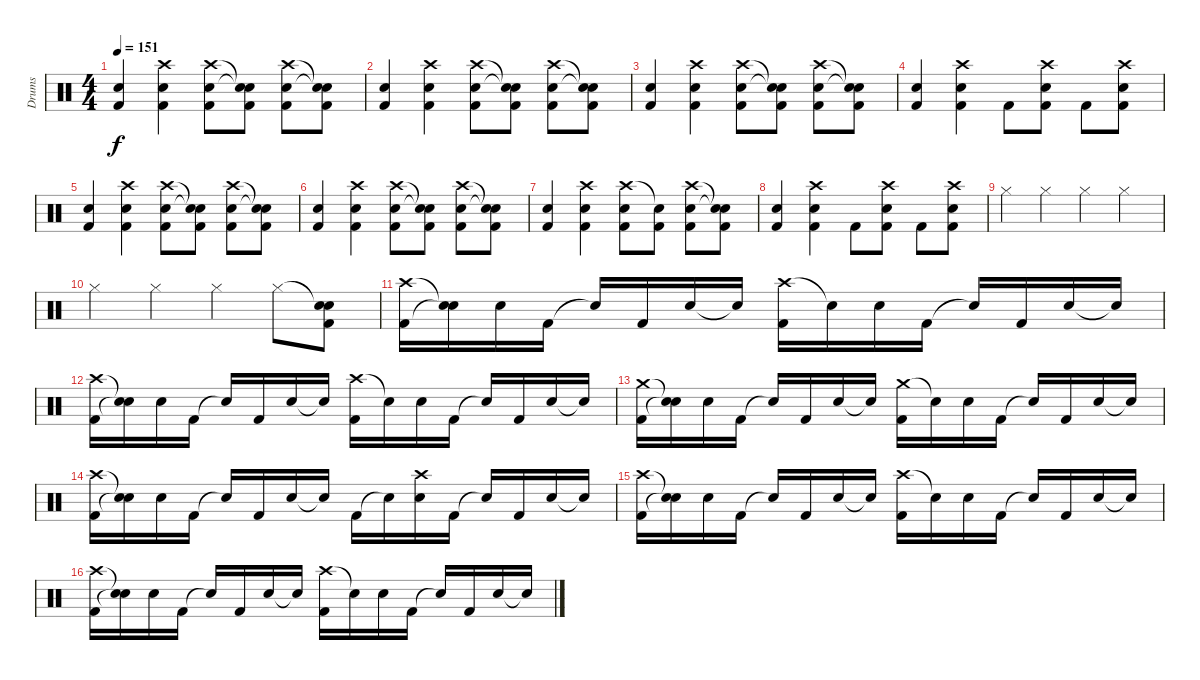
\track ("Drums" "Drums") {instrument percussion}
\staff {score}
\articulation defaults
\ts (4 4)
\tempo 151
\clef neutral
\ks c
("Snare (hit) 2" "Kick (hit) 2").4{dy f} ("Crash high (hit)" "Snare (hit) 2" "Kick (hit) 2").4 ("Crash high (hit)" "Snare (hit) 2" "Kick (hit) 2").8 ("Snare (hit)"{t} "Snare (hit)"{t} "Kick (hit) 2").8 ("Crash high (hit)" "Snare (hit) 2" "Kick (hit) 2").8 ("Snare (hit)"{t} "Snare (hit)"{t} "Kick (hit) 2").8 |
("Snare (hit) 2" "Kick (hit) 2").4 ("Crash high (hit)" "Snare (hit) 2" "Kick (hit) 2").4 ("Crash high (hit)" "Snare (hit) 2" "Kick (hit) 2").8 ("Snare (hit)"{t} "Snare (hit)"{t} "Kick (hit) 2").8 ("Crash high (hit)" "Snare (hit) 2" "Kick (hit) 2").8 ("Snare (hit)"{t} "Snare (hit)"{t} "Kick (hit) 2").8 |
("Snare (hit) 2" "Kick (hit) 2").4 ("Crash high (hit)" "Snare (hit) 2" "Kick (hit) 2").4 ("Crash high (hit)" "Snare (hit) 2" "Kick (hit) 2").8 ("Snare (hit)"{t} "Snare (hit)"{t} "Kick (hit) 2").8 ("Crash high (hit)" "Snare (hit) 2" "Kick (hit) 2").8 ("Snare (hit)"{t} "Snare (hit)"{t} "Kick (hit) 2").8 |
("Snare (hit) 2" "Kick (hit) 2").4 ("Crash high (hit)" "Snare (hit) 2" "Kick (hit) 2").4 "Kick (hit) 2".8 ("Crash high (hit)" "Snare (hit) 2" "Kick (hit) 2").8 "Kick (hit) 2".8 ("Crash high (hit)" "Snare (hit) 2" "Kick (hit) 2").8 |
("Snare (hit) 2" "Kick (hit) 2").4 ("Crash high (hit)" "Snare (hit) 2" "Kick (hit) 2").4 ("Crash high (hit)" "Snare (hit) 2" "Kick (hit) 2").8 ("Snare (hit)"{t} "Snare (hit)"{t} "Kick (hit) 2").8 ("Crash high (hit)" "Snare (hit) 2" "Kick (hit) 2").8 ("Snare (hit)"{t} "Snare (hit)"{t} "Kick (hit) 2").8 |
("Snare (hit) 2" "Kick (hit) 2").4 ("Crash high (hit)" "Snare (hit) 2" "Kick (hit) 2").4 ("Crash high (hit)" "Snare (hit) 2" "Kick (hit) 2").8 ("Snare (hit)"{t} "Snare (hit)"{t} "Kick (hit) 2").8 ("Crash high (hit)" "Snare (hit) 2" "Kick (hit) 2").8 ("Snare (hit)"{t} "Snare (hit)"{t} "Kick (hit) 2").8 |
("Snare (hit) 2" "Kick (hit) 2").4 ("Crash high (hit)" "Snare (hit) 2" "Kick (hit) 2").4 ("Crash high (hit)" "Snare (hit) 2" "Kick (hit) 2").8 ("Snare (hit)"{t} "Kick (hit) 2").8 ("Crash high (hit)" "Snare (hit) 2" "Kick (hit) 2").8 ("Snare (hit)"{t} "Snare (hit)"{t} "Kick (hit) 2").8 |
("Snare (hit) 2" "Kick (hit) 2").4 ("Crash high (hit)" "Snare (hit) 2" "Kick (hit) 2").4 "Kick (hit) 2".8 ("Crash high (hit)" "Snare (hit) 2" "Kick (hit) 2").8 "Kick (hit) 2".8 ("Crash high (hit)" "Snare (hit) 2" "Kick (hit) 2").8 |
"Hi-Hat (closed)".4 "Hi-Hat (closed)".4 "Hi-Hat (closed)".4 "Hi-Hat (closed)".4 |
"Hi-Hat (closed)".4 "Hi-Hat (closed)".4 "Hi-Hat (closed)".4 "Hi-Hat (closed)".8 ("Snare (hit)"{t} "Snare (hit) 2" "Kick (hit) 2").8 |
("Crash high (hit)" "Kick (hit) 2").16 ("Snare (hit)"{t} "Snare (hit)"{t}).16 "Snare (hit) 2".16 "Kick (hit) 2".16 "Snare (hit)"{t}.16 "Kick (hit) 2".16 "Snare (hit) 2".16 "Snare (hit)"{t}.16 ("Crash high (hit)" "Kick (hit) 2").16 "Snare (hit)"{t}.16 "Snare (hit) 2".16 "Kick (hit) 2".16 "Snare (hit)"{t}.16 "Kick (hit) 2".16 "Snare (hit) 2".16 "Snare (hit)"{t}.16 |
("Crash high (hit)" "Kick (hit) 2").16 ("Snare (hit)"{t} "Snare (hit)"{t}).16 "Snare (hit) 2".16 "Kick (hit) 2".16 "Snare (hit)"{t}.16 "Kick (hit) 2".16 "Snare (hit) 2".16 "Snare (hit)"{t}.16 ("Crash high (hit)" "Kick (hit) 2").16 "Snare (hit)"{t}.16 "Snare (hit) 2".16 "Kick (hit) 2".16 "Snare (hit)"{t}.16 "Kick (hit) 2".16 "Snare (hit) 2".16 "Snare (hit)"{t}.16 |
("Crash medium (hit)" "Kick (hit) 2").16 ("Snare (hit)"{t} "Snare (hit)"{t}).16 "Snare (hit) 2".16 "Kick (hit) 2".16 "Snare (hit)"{t}.16 "Kick (hit) 2".16 "Snare (hit) 2".16 "Snare (hit)"{t}.16 ("Crash medium (hit)" "Kick (hit) 2").16 "Snare (hit)"{t}.16 "Snare (hit) 2".16 "Kick (hit) 2".16 "Snare (hit)"{t}.16 "Kick (hit) 2".16 "Snare (hit) 2".16 "Snare (hit)"{t}.16 |
("Crash high (hit)" "Kick (hit) 2").16 ("Snare (hit)"{t} "Snare (hit)"{t}).16 "Snare (hit) 2".16 "Kick (hit) 2".16 "Snare (hit)"{t}.16 "Kick (hit) 2".16 "Snare (hit) 2".16 "Snare (hit)"{t}.16 "Kick (hit) 2".16 "Snare (hit)"{t}.16 ("Crash high (hit)" "Snare (hit) 2").16 "Kick (hit) 2".16 "Snare (hit)"{t}.16 "Kick (hit) 2".16 "Snare (hit) 2".16 "Snare (hit)"{t}.16 |
("Crash high (hit)" "Kick (hit) 2").16 ("Snare (hit)"{t} "Snare (hit)"{t}).16 "Snare (hit) 2".16 "Kick (hit) 2".16 "Snare (hit)"{t}.16 "Kick (hit) 2".16 "Snare (hit) 2".16 "Snare (hit)"{t}.16 ("Crash high (hit)" "Kick (hit) 2").16 "Snare (hit)"{t}.16 "Snare (hit) 2".16 "Kick (hit) 2".16 "Snare (hit)"{t}.16 "Kick (hit) 2".16 "Snare (hit) 2".16 "Snare (hit)"{t}.16 |
("Crash high (hit)" "Kick (hit) 2").16 ("Snare (hit)"{t} "Snare (hit)"{t}).16 "Snare (hit) 2".16 "Kick (hit) 2".16 "Snare (hit)"{t}.16 "Kick (hit) 2".16 "Snare (hit) 2".16 "Snare (hit)"{t}.16 ("Crash high (hit)" "Kick (hit) 2").16 "Snare (hit)"{t}.16 "Snare (hit) 2".16 "Kick (hit) 2".16 "Snare (hit)"{t}.16 "Kick (hit) 2".16 "Snare (hit) 2".16 "Snare (hit)"{t}.16
